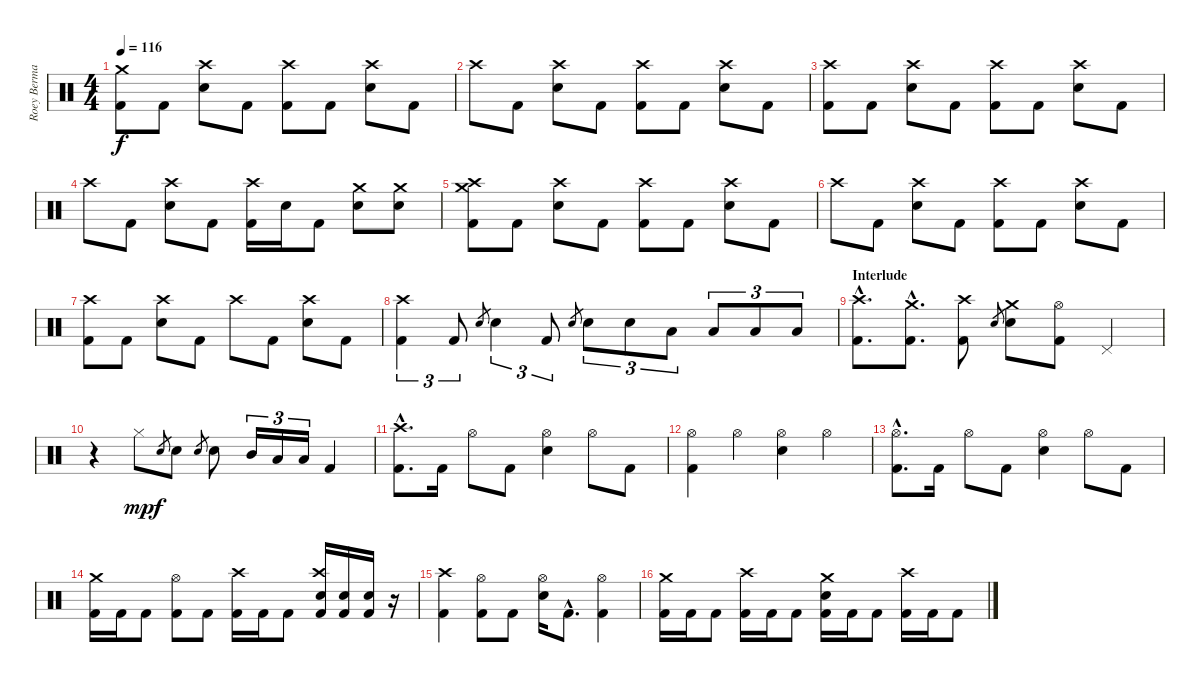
\track ("Roey Berman" "Roey Berma") {instrument percussion}
\staff {score}
\articulation defaults
\ts (4 4)
\section ("" "")
\tempo 116
\clef neutral
\ks c
("Crash medium (hit)" "Kick (hit) 2").8{dy f} "Kick (hit) 2".8 ("Crash high (hit)" "Electric Snare (hit)").8 "Kick (hit) 2".8 ("Crash high (hit)" "Kick (hit) 2").8 "Kick (hit) 2".8 ("Crash high (hit)" "Electric Snare (hit)").8 "Kick (hit) 2".8 |
"Crash high (hit)".8 "Kick (hit) 2".8 ("Crash high (hit)" "Electric Snare (hit)").8 "Kick (hit) 2".8 ("Crash high (hit)" "Kick (hit) 2").8 "Kick (hit) 2".8 ("Crash high (hit)" "Electric Snare (hit)").8 "Kick (hit) 2".8 |
("Crash high (hit)" "Kick (hit) 2").8 "Kick (hit) 2".8 ("Crash high (hit)" "Electric Snare (hit)").8 "Kick (hit) 2".8 ("Crash high (hit)" "Kick (hit) 2").8 "Kick (hit) 2".8 ("Crash high (hit)" "Electric Snare (hit)").8 "Kick (hit) 2".8 |
"Crash high (hit)".8 "Kick (hit) 2".8 ("Crash high (hit)" "Electric Snare (hit)").8 "Kick (hit) 2".8 ("Crash high (hit)" "Kick (hit) 2").16 "Electric Snare (hit)".16 "Kick (hit) 2".8 ("Crash medium (hit)" "Electric Snare (hit)").8 ("Crash medium (hit)" "Electric Snare (hit)").8 |
("Crash high (hit)" "Crash medium (hit)" "Kick (hit) 2").8 "Kick (hit) 2".8 ("Crash high (hit)" "Electric Snare (hit)").8 "Kick (hit) 2".8 ("Crash high (hit)" "Kick (hit) 2").8 "Kick (hit) 2".8 ("Crash high (hit)" "Electric Snare (hit)").8 "Kick (hit) 2".8 |
"Crash high (hit)".8 "Kick (hit) 2".8 ("Crash high (hit)" "Electric Snare (hit)").8 "Kick (hit) 2".8 ("Crash high (hit)" "Kick (hit) 2").8 "Kick (hit) 2".8 ("Crash high (hit)" "Electric Snare (hit)").8 "Kick (hit) 2".8 |
("Crash high (hit)" "Kick (hit) 2").8 "Kick (hit) 2".8 ("Crash high (hit)" "Electric Snare (hit)").8 "Kick (hit) 2".8 "Crash high (hit)".8 "Kick (hit) 2".8 ("Crash high (hit)" "Electric Snare (hit)").8 "Kick (hit) 2".8 |
("Crash high (hit)" "Kick (hit) 2").4{tu (3 2)} "Kick (hit) 2".8{tu (3 2)} "Electric Snare (hit)".8{gr} "Electric Snare (hit)".4{tu (3 2)} "Kick (hit) 2".8{tu (3 2)} "Electric Snare (hit)".8{gr} "Electric Snare (hit)".8{tu (3 2)} "Electric Snare (hit)".8{tu (3 2)} "Low Tom (hit)".8{tu (3 2)} "Low Tom (hit)".8{tu (3 2)} "Low Floor Tom (hit)".8{tu (3 2)} "Low Floor Tom (hit)".8{tu (3 2)} |
\section ("" "Interlude")
("Crash high (hit)"{hac} "Kick (hit) 2"{hac}).8{d} ("Crash medium (hit)"{hac} "Kick (hit) 2"{hac}).8{d} ("Crash high (hit)" "Kick (hit) 2").8 "Electric Snare (hit)".8{gr} ("Crash medium (hit)" "Electric Snare (hit)").8 ("Hi-Hat (open)" "Kick (hit) 2").8 "Pedal Hi-Hat (hit)".4 |
r.4 "Hi-Hat (closed)".8{dy mp} "Electric Snare (hit)".8{gr dy f} "Electric Snare (hit)".8 "Electric Snare (hit)".8{gr} "Electric Snare (hit)".8 "Mid Tom (hit)".16{tu (3 2)} "Low Tom (hit)".16{tu (3 2)} "Low Floor Tom (hit)".16{tu (3 2)} "Kick (hit) 2".4 |
("Crash high (hit)"{hac} "Kick (hit) 2"{hac}).8{d} "Kick (hit) 2".16 "Hi-Hat (open)".8 "Kick (hit) 2".8 ("Hi-Hat (open)" "Electric Snare (hit)").4 "Hi-Hat (open)".8 "Kick (hit) 2".8 |
("Hi-Hat (open)" "Kick (hit) 2").4 "Hi-Hat (open)".4 ("Hi-Hat (open)" "Electric Snare (hit)").4 "Hi-Hat (open)".4 |
("Hi-Hat (open)"{hac} "Kick (hit) 2"{hac}).8{d} "Kick (hit) 2".16 "Hi-Hat (open)".8 "Kick (hit) 2".8 ("Hi-Hat (open)" "Electric Snare (hit)").4 "Hi-Hat (open)".8 "Kick (hit) 2".8 |
("Crash medium (hit)" "Kick (hit) 2").16 "Kick (hit) 2".16 "Kick (hit) 2".8 ("Hi-Hat (open)" "Kick (hit) 2").8 "Kick (hit) 2".8 ("Crash high (hit)" "Kick (hit) 2").16 "Kick (hit) 2".16 "Kick (hit) 2".8 ("Crash high (hit)" "Electric Snare (hit)" "Kick (hit) 2").16 ("Electric Snare (hit)" "Kick (hit) 2").16 ("Electric Snare (hit)" "Kick (hit) 2").16 r.16 |
("Crash high (hit)" "Kick (hit) 2").4 ("Hi-Hat (open)" "Kick (hit) 2").8 "Kick (hit) 2".8 ("Hi-Hat (open)" "Electric Snare (hit)").16 "Kick (hit) 2"{hac}.8{d} ("Hi-Hat (open)" "Kick (hit) 2").4 |
("Crash medium (hit)" "Kick (hit) 2").16 "Kick (hit) 2".16 "Kick (hit) 2".8 ("Crash high (hit)" "Kick (hit) 2").16 "Kick (hit) 2".16 "Kick (hit) 2".8 ("Crash medium (hit)" "Electric Snare (hit)" "Kick (hit) 2").16 "Kick (hit) 2".16 "Kick (hit) 2".8 ("Crash high (hit)" "Kick (hit) 2").16 "Kick (hit) 2".16 "Kick (hit) 2".8
